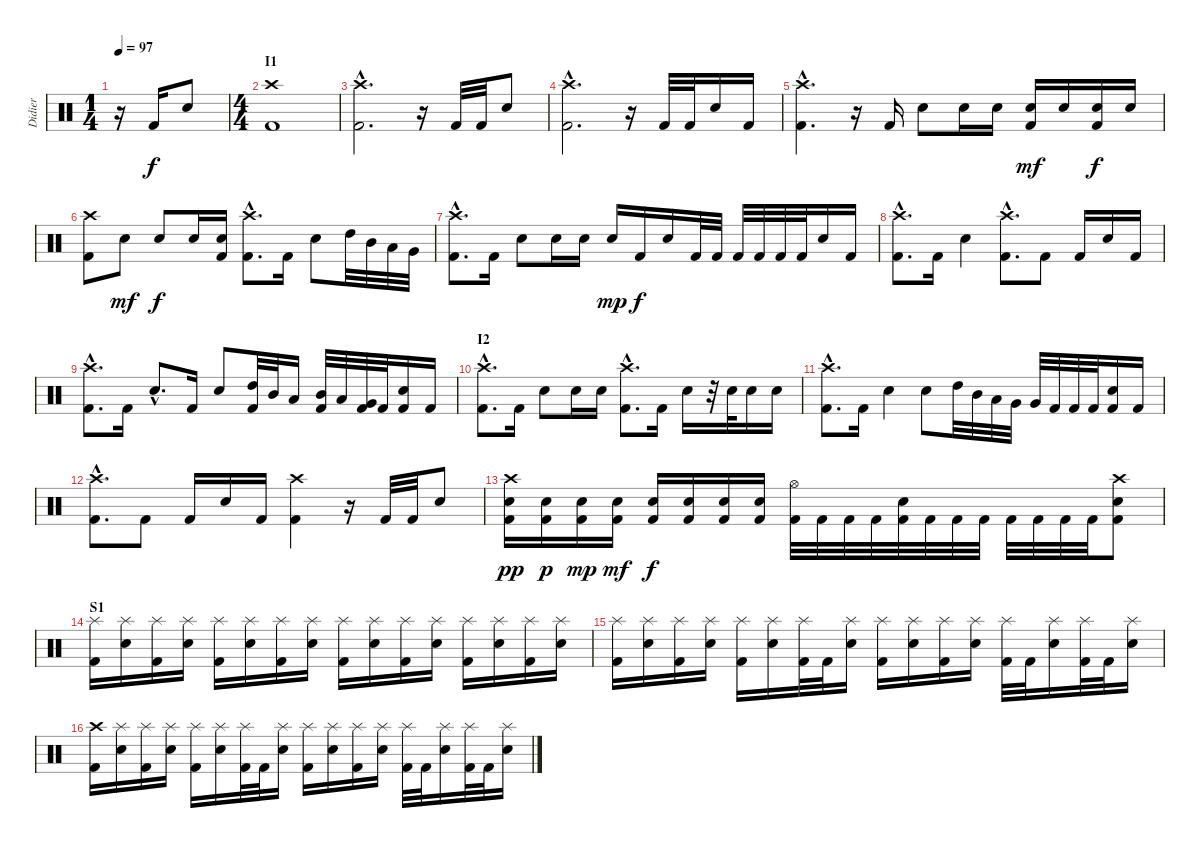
\track ("Didier" "Didier") {instrument percussion}
\staff {score}
\articulation defaults
\ts (1 4)
\tempo 97
\clef neutral
\ks c
r.16{dy f} "Kick (hit) 2".16 "Snare (hit) 2".8 |
\ts (4 4)
\section ("" "I1")
("Crash high (hit)" "Kick (hit) 2").1 |
("Crash high (hit)"{hac} "Kick (hit) 2"{hac}).2{d} r.16 "Kick (hit) 2".32 "Kick (hit) 2".32 "Snare (hit) 2".8 |
("Crash high (hit)"{hac} "Kick (hit) 2"{hac}).2{d} r.16 "Kick (hit) 2".32 "Kick (hit) 2".32 "Snare (hit) 2".16 "Kick (hit) 2".16 |
("Crash high (hit)"{hac} "Kick (hit) 2"{hac}).4{d} r.16 "Kick (hit) 2".16 "Snare (hit) 2".8 "Snare (hit) 2".16 "Snare (hit) 2".16 ("Snare (hit) 2" "Kick (hit) 2").16{dy mf} "Snare (hit) 2".16 ("Snare (hit) 2" "Kick (hit) 2").16{dy f} "Snare (hit) 2".16 |
("Crash high (hit)" "Kick (hit) 2").8 "Snare (hit) 2".8{dy mf} "Snare (hit) 2".8{dy f} "Snare (hit) 2".16 ("Snare (hit) 2" "Kick (hit) 2").16 ("Crash high (hit)"{hac} "Kick (hit) 2"{hac}).8{d} "Kick (hit) 2".16 "Snare (hit) 2".8 "High Tom (hit)".32 "Mid Tom (hit)".32 "Low Tom (hit)".32 "Very Low Tom (hit)".32 |
("Crash high (hit)"{hac} "Kick (hit) 2"{hac}).8{d} "Kick (hit) 2".16 "Snare (hit) 2".8 "Snare (hit) 2".16 "Snare (hit) 2".16 "Snare (hit) 2".16{dy mp} "Kick (hit) 2".16{dy f} "Snare (hit) 2".16 "Kick (hit) 2".32 "Kick (hit) 2".32 "Kick (hit) 2".32 "Kick (hit) 2".32 "Kick (hit) 2".32 "Kick (hit) 2".32 "Snare (hit) 2".16 "Kick (hit) 2".16 |
("Crash high (hit)"{hac} "Kick (hit) 2"{hac}).8{d} "Kick (hit) 2".16 "Snare (hit) 2".4 ("Crash high (hit)"{hac} "Kick (hit) 2"{hac}).8{d} "Kick (hit) 2".8 "Kick (hit) 2".16 "Snare (hit) 2".16 "Kick (hit) 2".16 |
("Crash high (hit)"{hac} "Kick (hit) 2"{hac}).8{d} "Kick (hit) 2".16 "Snare (hit) 2"{hac}.8{d} "Kick (hit) 2".16 "Snare (hit) 2".8 ("High Tom (hit)" "Kick (hit) 2").32 "Mid Tom (hit)".32 "Low Tom (hit)".16 ("Mid Tom (hit)" "Kick (hit) 2").32 "Low Tom (hit)".32 ("Very Low Tom (hit)" "Kick (hit) 2").32 "Kick (hit) 2".32 ("Snare (hit) 2" "Kick (hit) 2").16 "Kick (hit) 2".16 |
\section ("" "I2")
("Crash high (hit)"{hac} "Kick (hit) 2"{hac}).8{d} "Kick (hit) 2".16 "Snare (hit) 2".8 "Snare (hit) 2".16 "Snare (hit) 2".16 ("Crash high (hit)"{hac} "Kick (hit) 2"{hac}).8{d} "Kick (hit) 2".16 "Snare (hit) 2".16 r.32 "Snare (hit) 2".32 "Snare (hit) 2".16 "Snare (hit) 2".16 |
("Crash high (hit)"{hac} "Kick (hit) 2"{hac}).8{d} "Kick (hit) 2".16 "Snare (hit) 2".4 "Snare (hit) 2".8 "High Tom (hit)".32 "Mid Tom (hit)".32 "Low Tom (hit)".32 "Very Low Tom (hit)".32 "Very Low Tom (hit)".32 "Kick (hit) 2".32 "Kick (hit) 2".32 "Kick (hit) 2".32 ("Snare (hit) 2" "Kick (hit) 2").16 "Kick (hit) 2".16 |
("Crash high (hit)"{hac} "Kick (hit) 2"{hac}).8{d} "Kick (hit) 2".8 "Kick (hit) 2".16 "Snare (hit) 2".16 "Kick (hit) 2".16 ("Crash high (hit)" "Kick (hit) 2").4 r.16 "Kick (hit) 2".32 "Kick (hit) 2".32 "Snare (hit) 2".8 |
("Crash high (hit)" "Snare (hit) 2" "Kick (hit) 2").16{dy pp} ("Snare (hit) 2" "Kick (hit) 2").16{dy p} ("Snare (hit) 2" "Kick (hit) 2").16{dy mp} ("Snare (hit) 2" "Kick (hit) 2").16{dy mf} ("Snare (hit) 2" "Kick (hit) 2").16{dy f} ("Snare (hit) 2" "Kick (hit) 2").16 ("Snare (hit) 2" "Kick (hit) 2").16 ("Snare (hit) 2" "Kick (hit) 2").16 ("Hi-Hat (open)" "Kick (hit) 2").32 "Kick (hit) 2".32 "Kick (hit) 2".32 "Kick (hit) 2".32 ("Snare (hit) 2" "Kick (hit) 2").32 "Kick (hit) 2".32 "Kick (hit) 2".32 "Kick (hit) 2".32 "Kick (hit) 2".32 "Kick (hit) 2".32 "Kick (hit) 2".32 "Kick (hit) 2".32 ("Crash high (hit)" "Snare (hit) 2" "Kick (hit) 2").8 |
\section ("" "S1")
("Splash (hit)" "Kick (hit) 2").16 ("Splash (hit)" "Snare (hit) 2").16 ("Splash (hit)" "Kick (hit) 2").16 ("Splash (hit)" "Snare (hit) 2").16 ("Splash (hit)" "Kick (hit) 2").16 ("Splash (hit)" "Snare (hit) 2").16 ("Splash (hit)" "Kick (hit) 2").16 ("Splash (hit)" "Snare (hit) 2").16 ("Splash (hit)" "Kick (hit) 2").16 ("Splash (hit)" "Snare (hit) 2").16 ("Splash (hit)" "Kick (hit) 2").16 ("Splash (hit)" "Snare (hit) 2").16 ("Splash (hit)" "Kick (hit) 2").16 ("Splash (hit)" "Snare (hit) 2").16 ("Splash (hit)" "Kick (hit) 2").16 ("Splash (hit)" "Snare (hit) 2").16 |
("Splash (hit)" "Kick (hit) 2").16 ("Splash (hit)" "Snare (hit) 2").16 ("Splash (hit)" "Kick (hit) 2").16 ("Splash (hit)" "Snare (hit) 2").16 ("Splash (hit)" "Kick (hit) 2").16 ("Splash (hit)" "Snare (hit) 2").16 ("Splash (hit)" "Kick (hit) 2").32 "Kick (hit) 2".32 ("Splash (hit)" "Snare (hit) 2").16 ("Splash (hit)" "Kick (hit) 2").16 ("Splash (hit)" "Snare (hit) 2").16 ("Splash (hit)" "Kick (hit) 2").16 ("Splash (hit)" "Snare (hit) 2").16 ("Splash (hit)" "Kick (hit) 2").32 "Kick (hit) 2".32 ("Splash (hit)" "Snare (hit) 2").16 ("Splash (hit)" "Kick (hit) 2").32 "Kick (hit) 2".32 ("Splash (hit)" "Snare (hit) 2").16 |
("Crash high (hit)" "Kick (hit) 2").16 ("Splash (hit)" "Snare (hit) 2").16 ("Splash (hit)" "Kick (hit) 2").16 ("Splash (hit)" "Snare (hit) 2").16 ("Splash (hit)" "Kick (hit) 2").16 ("Splash (hit)" "Snare (hit) 2").16 ("Splash (hit)" "Kick (hit) 2").32 "Kick (hit) 2".32 ("Splash (hit)" "Snare (hit) 2").16 ("Splash (hit)" "Kick (hit) 2").16 ("Splash (hit)" "Snare (hit) 2").16 ("Splash (hit)" "Kick (hit) 2").16 ("Splash (hit)" "Snare (hit) 2").16 ("Splash (hit)" "Kick (hit) 2").32 "Kick (hit) 2".32 ("Splash (hit)" "Snare (hit) 2").16 ("Splash (hit)" "Kick (hit) 2").32 "Kick (hit) 2".32 ("Splash (hit)" "Snare (hit) 2").16
